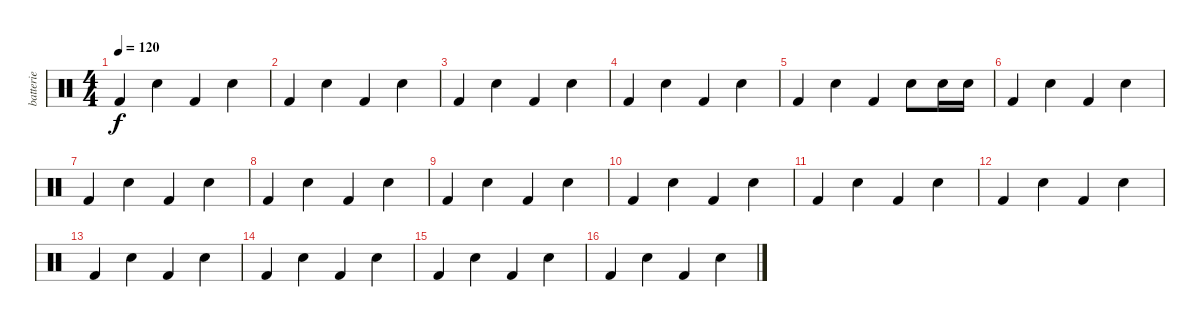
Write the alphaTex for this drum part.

\track ("batterie" "batterie") {instrument percussion}
\staff {score}
\articulation defaults
\ts (4 4)
\tempo 120
\clef neutral
\ks c "Kick (hit) 2".4{dy f} "Electric Snare (hit)".4 "Kick (hit) 2".4 "Electric Snare (hit)".4
|
"Kick (hit) 2".4 "Electric Snare (hit)".4 "Kick (hit) 2".4 "Electric Snare (hit)".4 |
"Kick (hit) 2".4 "Electric Snare (hit)".4 "Kick (hit) 2".4 "Electric Snare (hit)".4 |
"Kick (hit) 2".4 "Electric Snare (hit)".4 "Kick (hit) 2".4 "Electric Snare (hit)".4 |
"Kick (hit) 2".4 "Electric Snare (hit)".4 "Kick (hit) 2".4 "Electric Snare (hit)".8 "Electric Snare (hit)".16 "Electric Snare (hit)".16 |
"Kick (hit) 2".4 "Electric Snare (hit)".4 "Kick (hit) 2".4 "Electric Snare (hit)".4 |
"Kick (hit) 2".4 "Electric Snare (hit)".4 "Kick (hit) 2".4 "Electric Snare (hit)".4 |
"Kick (hit) 2".4 "Electric Snare (hit)".4 "Kick (hit) 2".4 "Electric Snare (hit)".4 |
"Kick (hit) 2".4 "Electric Snare (hit)".4 "Kick (hit) 2".4 "Electric Snare (hit)".4 |
"Kick (hit) 2".4 "Electric Snare (hit)".4 "Kick (hit) 2".4 "Electric Snare (hit)".4 |
"Kick (hit) 2".4 "Electric Snare (hit)".4 "Kick (hit) 2".4 "Electric Snare (hit)".4 |
"Kick (hit) 2".4 "Electric Snare (hit)".4 "Kick (hit) 2".4 "Electric Snare (hit)".4 |
"Kick (hit) 2".4 "Electric Snare (hit)".4 "Kick (hit) 2".4 "Electric Snare (hit)".4 |
"Kick (hit) 2".4 "Electric Snare (hit)".4 "Kick (hit) 2".4 "Electric Snare (hit)".4 |
"Kick (hit) 2".4 "Electric Snare (hit)".4 "Kick (hit) 2".4 "Electric Snare (hit)".4 |
"Kick (hit) 2".4 "Electric Snare (hit)".4 "Kick (hit) 2".4 "Electric Snare (hit)".4
